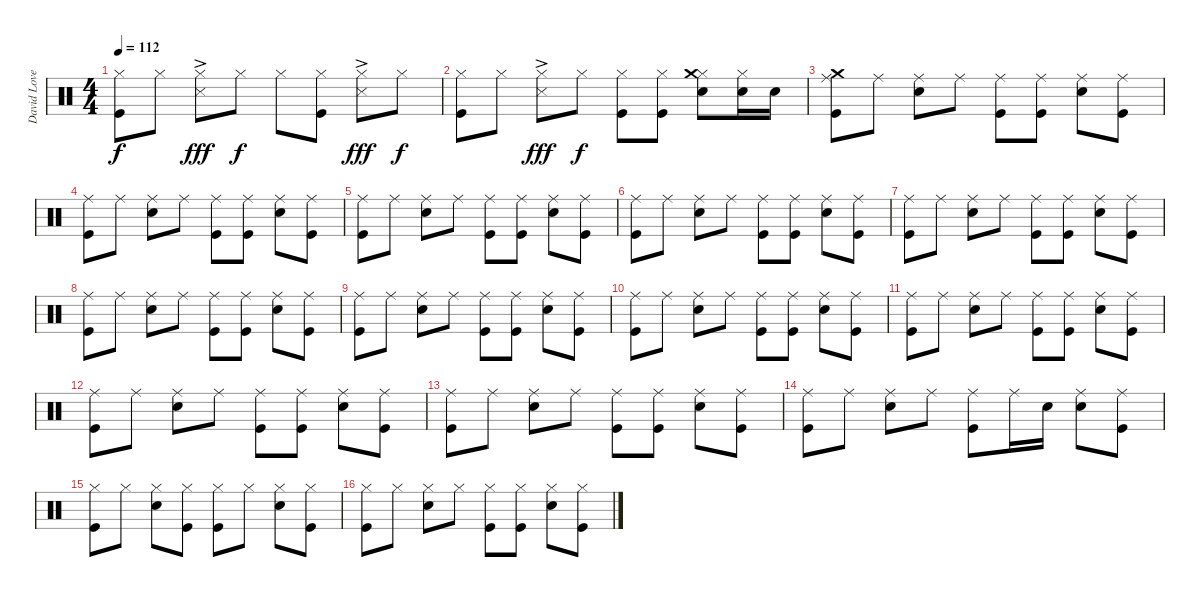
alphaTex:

\track ("David Lovering" "David Love") {instrument percussion}
\staff {score}
\articulation defaults
\ts (4 4)
\tempo 112
\clef neutral
\ks c
("Hi-Hat (closed)" "Kick (hit)").8{dy f} "Hi-Hat (closed)".8 ("Hi-Hat (closed)" "Snare (side stick) 3"{ac}).8{dy fff} "Hi-Hat (closed)".8{dy f} "Hi-Hat (closed)".8 ("Hi-Hat (closed)" "Kick (hit)").8 ("Hi-Hat (closed)" "Snare (side stick) 3"{ac}).8{dy fff} "Hi-Hat (closed)".8{dy f} |
("Hi-Hat (closed)" "Kick (hit)").8 "Hi-Hat (closed)".8 ("Hi-Hat (closed)" "Snare (side stick) 3"{ac}).8{dy fff} "Hi-Hat (closed)".8{dy f} ("Hi-Hat (closed)" "Kick (hit)").8 ("Hi-Hat (closed)" "Kick (hit)").8 ("Hi-Hat (closed)" "Crash medium (hit)" "Snare (hit) 2").8 ("Hi-Hat (closed)" "Snare (hit) 2").16 "Snare (hit) 2".16 |
("Ride (middle)" "Crash medium (hit)" "Kick (hit)").8 "Ride (middle)".8 ("Ride (middle)" "Snare (hit) 2").8 "Ride (middle)".8 ("Ride (middle)" "Kick (hit)").8 ("Ride (middle)" "Kick (hit)").8 ("Ride (middle)" "Snare (hit) 2").8 ("Ride (middle)" "Kick (hit)").8 |
("Ride (middle)" "Kick (hit)").8 "Ride (middle)".8 ("Ride (middle)" "Snare (hit) 2").8 "Ride (middle)".8 ("Ride (middle)" "Kick (hit)").8 ("Ride (middle)" "Kick (hit)").8 ("Ride (middle)" "Snare (hit) 2").8 ("Ride (middle)" "Kick (hit)").8 |
("Ride (middle)" "Kick (hit)").8 "Ride (middle)".8 ("Ride (middle)" "Snare (hit) 2").8 "Ride (middle)".8 ("Ride (middle)" "Kick (hit)").8 ("Ride (middle)" "Kick (hit)").8 ("Ride (middle)" "Snare (hit) 2").8 ("Ride (middle)" "Kick (hit)").8 |
("Ride (middle)" "Kick (hit)").8 "Ride (middle)".8 ("Ride (middle)" "Snare (hit) 2").8 "Ride (middle)".8 ("Ride (middle)" "Kick (hit)").8 ("Ride (middle)" "Kick (hit)").8 ("Ride (middle)" "Snare (hit) 2").8 ("Ride (middle)" "Kick (hit)").8 |
("Ride (middle)" "Kick (hit)").8 "Ride (middle)".8 ("Ride (middle)" "Snare (hit) 2").8 "Ride (middle)".8 ("Ride (middle)" "Kick (hit)").8 ("Ride (middle)" "Kick (hit)").8 ("Ride (middle)" "Snare (hit) 2").8 ("Ride (middle)" "Kick (hit)").8 |
("Ride (middle)" "Kick (hit)").8 "Ride (middle)".8 ("Ride (middle)" "Snare (hit) 2").8 "Ride (middle)".8 ("Ride (middle)" "Kick (hit)").8 ("Ride (middle)" "Kick (hit)").8 ("Ride (middle)" "Snare (hit) 2").8 ("Ride (middle)" "Kick (hit)").8 |
("Ride (middle)" "Kick (hit)").8 "Ride (middle)".8 ("Ride (middle)" "Snare (hit) 2").8 "Ride (middle)".8 ("Ride (middle)" "Kick (hit)").8 ("Ride (middle)" "Kick (hit)").8 ("Ride (middle)" "Snare (hit) 2").8 ("Ride (middle)" "Kick (hit)").8 |
("Ride (middle)" "Kick (hit)").8 "Ride (middle)".8 ("Ride (middle)" "Snare (hit) 2").8 "Ride (middle)".8 ("Ride (middle)" "Kick (hit)").8 ("Ride (middle)" "Kick (hit)").8 ("Ride (middle)" "Snare (hit) 2").8 ("Ride (middle)" "Kick (hit)").8 |
("Ride (middle)" "Kick (hit)").8 "Ride (middle)".8 ("Ride (middle)" "Snare (hit) 2").8 "Ride (middle)".8 ("Ride (middle)" "Kick (hit)").8 ("Ride (middle)" "Kick (hit)").8 ("Ride (middle)" "Snare (hit) 2").8 ("Ride (middle)" "Kick (hit)").8 |
("Ride (middle)" "Kick (hit)").8 "Ride (middle)".8 ("Ride (middle)" "Snare (hit) 2").8 "Ride (middle)".8 ("Ride (middle)" "Kick (hit)").8 ("Ride (middle)" "Kick (hit)").8 ("Ride (middle)" "Snare (hit) 2").8 ("Ride (middle)" "Kick (hit)").8 |
("Ride (middle)" "Kick (hit)").8 "Ride (middle)".8 ("Ride (middle)" "Snare (hit) 2").8 "Ride (middle)".8 ("Ride (middle)" "Kick (hit)").8 ("Ride (middle)" "Kick (hit)").8 ("Ride (middle)" "Snare (hit) 2").8 ("Ride (middle)" "Kick (hit)").8 |
("Ride (middle)" "Kick (hit)").8 "Ride (middle)".8 ("Ride (middle)" "Snare (hit) 2").8 "Ride (middle)".8 ("Ride (middle)" "Kick (hit)").8 "Ride (middle)".16 "Snare (hit) 2".16 ("Ride (middle)" "Snare (hit) 2").8 ("Ride (middle)" "Kick (hit)").8 |
\section ("" "")
("Hi-Hat (closed)" "Kick (hit)").8 "Hi-Hat (closed)".8 ("Hi-Hat (closed)" "Snare (hit) 2").8 ("Hi-Hat (closed)" "Kick (hit)").8 ("Hi-Hat (closed)" "Kick (hit)").8 "Hi-Hat (closed)".8 ("Hi-Hat (closed)" "Snare (hit) 2").8 ("Hi-Hat (closed)" "Kick (hit)").8 |
("Hi-Hat (closed)" "Kick (hit)").8 "Hi-Hat (closed)".8 ("Hi-Hat (closed)" "Snare (hit) 2").8 "Hi-Hat (closed)".8 ("Hi-Hat (closed)" "Kick (hit)").8 ("Hi-Hat (closed)" "Kick (hit)").8 ("Hi-Hat (closed)" "Snare (hit) 2").8 ("Hi-Hat (closed)" "Kick (hit)").8
